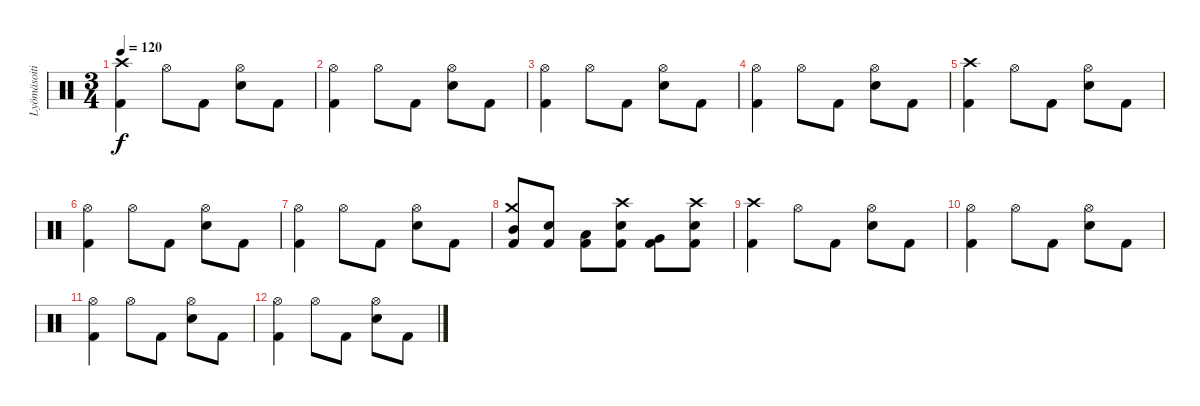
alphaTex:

\track ("Lyömäsoitin" "Lyömäsoiti") {instrument percussion}
\staff {score}
\articulation defaults
\ts (3 4)
\tempo 120
\clef neutral
\ks c
("Crash high (hit)" "Kick (hit) 2").4{dy f} "Hi-Hat (open)".8 "Kick (hit) 2".8 ("Hi-Hat (open)" "Electric Snare (hit)").8 "Kick (hit) 2".8 |
("Hi-Hat (open)" "Kick (hit) 2").4 "Hi-Hat (open)".8 "Kick (hit) 2".8 ("Hi-Hat (open)" "Electric Snare (hit)").8 "Kick (hit) 2".8 |
("Hi-Hat (open)" "Kick (hit) 2").4 "Hi-Hat (open)".8 "Kick (hit) 2".8 ("Hi-Hat (open)" "Electric Snare (hit)").8 "Kick (hit) 2".8 |
("Hi-Hat (open)" "Kick (hit) 2").4 "Hi-Hat (open)".8 "Kick (hit) 2".8 ("Hi-Hat (open)" "Electric Snare (hit)").8 "Kick (hit) 2".8 |
("Crash high (hit)" "Kick (hit) 2").4 "Hi-Hat (open)".8 "Kick (hit) 2".8 ("Hi-Hat (open)" "Electric Snare (hit)").8 "Kick (hit) 2".8 |
("Hi-Hat (open)" "Kick (hit) 2").4 "Hi-Hat (open)".8 "Kick (hit) 2".8 ("Hi-Hat (open)" "Electric Snare (hit)").8 "Kick (hit) 2".8 |
("Hi-Hat (open)" "Kick (hit) 2").4 "Hi-Hat (open)".8 "Kick (hit) 2".8 ("Hi-Hat (open)" "Electric Snare (hit)").8 "Kick (hit) 2".8 |
("Crash medium (hit)" "Mid Tom (hit)" "Kick (hit) 2").8 ("Electric Snare (hit)" "Kick (hit) 2").8 ("Low Tom (hit)" "Kick (hit) 2").8 ("Crash high (hit)" "Electric Snare (hit)" "Kick (hit) 2").8 ("Very Low Tom (hit)" "Kick (hit) 2").8 ("Crash high (hit)" "Electric Snare (hit)" "Kick (hit) 2").8 |
("Crash high (hit)" "Kick (hit) 2").4 "Hi-Hat (open)".8 "Kick (hit) 2".8 ("Hi-Hat (open)" "Electric Snare (hit)").8 "Kick (hit) 2".8 |
("Hi-Hat (open)" "Kick (hit) 2").4 "Hi-Hat (open)".8 "Kick (hit) 2".8 ("Hi-Hat (open)" "Electric Snare (hit)").8 "Kick (hit) 2".8 |
("Hi-Hat (open)" "Kick (hit) 2").4 "Hi-Hat (open)".8 "Kick (hit) 2".8 ("Hi-Hat (open)" "Electric Snare (hit)").8 "Kick (hit) 2".8 |
("Hi-Hat (open)" "Kick (hit) 2").4 "Hi-Hat (open)".8 "Kick (hit) 2".8 ("Hi-Hat (open)" "Electric Snare (hit)").8 "Kick (hit) 2".8
